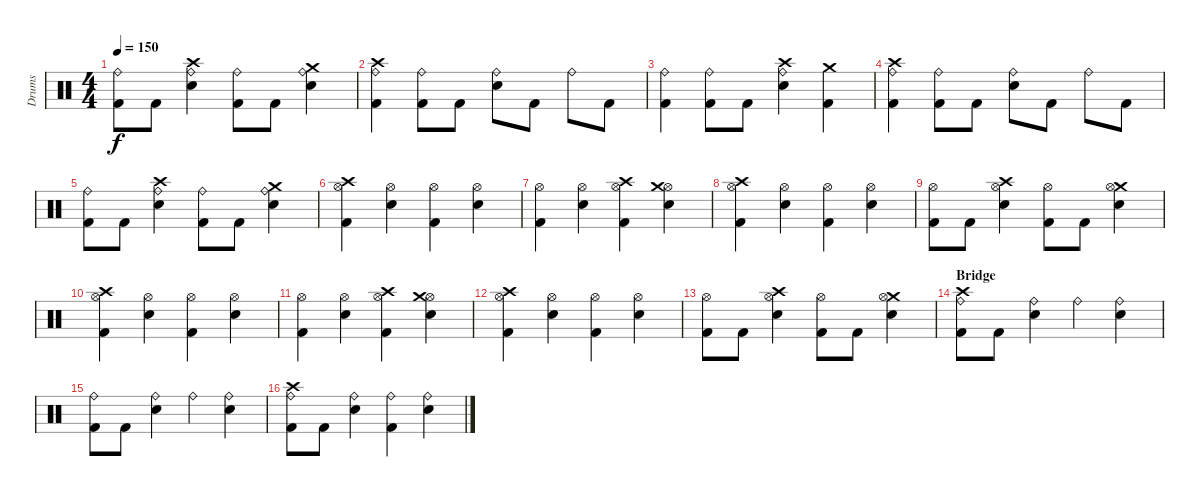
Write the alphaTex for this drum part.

\track ("Drums" "Drums") {instrument percussion}
\staff {score}
\articulation defaults
\ts (4 4)
\tempo 150
\clef neutral
\ks c
("Kick (hit) 2" "Ride (bell)").8{dy f} "Kick (hit) 2".8 ("Electric Snare (hit)" "Crash high (hit)" "Ride (bell)").4 ("Kick (hit) 2" "Ride (bell)").8 "Kick (hit) 2".8 ("Electric Snare (hit)" "Crash medium (hit)" "Ride (bell)").4 |
("Kick (hit) 2" "Ride (bell)" "Crash high (hit)").4 ("Kick (hit) 2" "Ride (bell)").8 "Kick (hit) 2".8 ("Electric Snare (hit)" "Ride (bell)").8 "Kick (hit) 2".8 "Ride (bell)".8 "Kick (hit) 2".8 |
("Kick (hit) 2" "Ride (bell)").4 ("Kick (hit) 2" "Ride (bell)").8 "Kick (hit) 2".8 ("Electric Snare (hit)" "Ride (bell)" "Crash high (hit)").4 ("Kick (hit) 2" "Crash medium (hit)").4 |
("Kick (hit) 2" "Ride (bell)" "Crash high (hit)").4 ("Kick (hit) 2" "Ride (bell)").8 "Kick (hit) 2".8 ("Electric Snare (hit)" "Ride (bell)").8 "Kick (hit) 2".8 "Ride (bell)".8 "Kick (hit) 2".8 |
("Kick (hit) 2" "Ride (bell)").8 "Kick (hit) 2".8 ("Electric Snare (hit)" "Crash high (hit)" "Ride (bell)").4 ("Kick (hit) 2" "Ride (bell)").8 "Kick (hit) 2".8 ("Electric Snare (hit)" "Crash medium (hit)" "Ride (bell)").4 |
("Kick (hit) 2" "Hi-Hat (open)" "Crash high (hit)").4 ("Electric Snare (hit)" "Hi-Hat (open)").4 ("Kick (hit) 2" "Hi-Hat (open)").4 ("Electric Snare (hit)" "Hi-Hat (open)").4 |
("Kick (hit) 2" "Hi-Hat (open)").4 ("Electric Snare (hit)" "Hi-Hat (open)").4 ("Kick (hit) 2" "Hi-Hat (open)" "Crash high (hit)").4 ("Electric Snare (hit)" "Hi-Hat (open)" "Crash medium (hit)").4 |
("Kick (hit) 2" "Hi-Hat (open)" "Crash high (hit)").4 ("Electric Snare (hit)" "Hi-Hat (open)").4 ("Kick (hit) 2" "Hi-Hat (open)").4 ("Electric Snare (hit)" "Hi-Hat (open)").4 |
("Kick (hit) 2" "Hi-Hat (open)").8 "Kick (hit) 2".8 ("Electric Snare (hit)" "Crash high (hit)" "Hi-Hat (open)").4 ("Kick (hit) 2" "Hi-Hat (open)").8 "Kick (hit) 2".8 ("Electric Snare (hit)" "Crash medium (hit)" "Hi-Hat (open)").4 |
("Kick (hit) 2" "Hi-Hat (open)" "Crash high (hit)").4 ("Electric Snare (hit)" "Hi-Hat (open)").4 ("Kick (hit) 2" "Hi-Hat (open)").4 ("Electric Snare (hit)" "Hi-Hat (open)").4 |
("Kick (hit) 2" "Hi-Hat (open)").4 ("Electric Snare (hit)" "Hi-Hat (open)").4 ("Kick (hit) 2" "Hi-Hat (open)" "Crash high (hit)").4 ("Electric Snare (hit)" "Hi-Hat (open)" "Crash medium (hit)").4 |
("Kick (hit) 2" "Hi-Hat (open)" "Crash high (hit)").4 ("Electric Snare (hit)" "Hi-Hat (open)").4 ("Kick (hit) 2" "Hi-Hat (open)").4 ("Electric Snare (hit)" "Hi-Hat (open)").4 |
("Kick (hit) 2" "Hi-Hat (open)").8 "Kick (hit) 2".8 ("Electric Snare (hit)" "Crash high (hit)" "Hi-Hat (open)").4 ("Kick (hit) 2" "Hi-Hat (open)").8 "Kick (hit) 2".8 ("Electric Snare (hit)" "Crash medium (hit)" "Hi-Hat (open)").4 |
\section ("" "Bridge")
("Ride (bell)" "Kick (hit) 2" "Crash high (hit)").8 "Kick (hit) 2".8 ("Ride (bell)" "Electric Snare (hit)").4 "Ride (bell)".4 ("Ride (bell)" "Electric Snare (hit)").4 |
("Ride (bell)" "Kick (hit) 2").8 "Kick (hit) 2".8 ("Ride (bell)" "Electric Snare (hit)").4 "Ride (bell)".4 ("Ride (bell)" "Electric Snare (hit)").4 |
("Ride (bell)" "Kick (hit) 2" "Crash high (hit)").8 "Kick (hit) 2".8 ("Ride (bell)" "Electric Snare (hit)").4 ("Ride (bell)" "Kick (hit) 2").4 ("Ride (bell)" "Electric Snare (hit)").4
